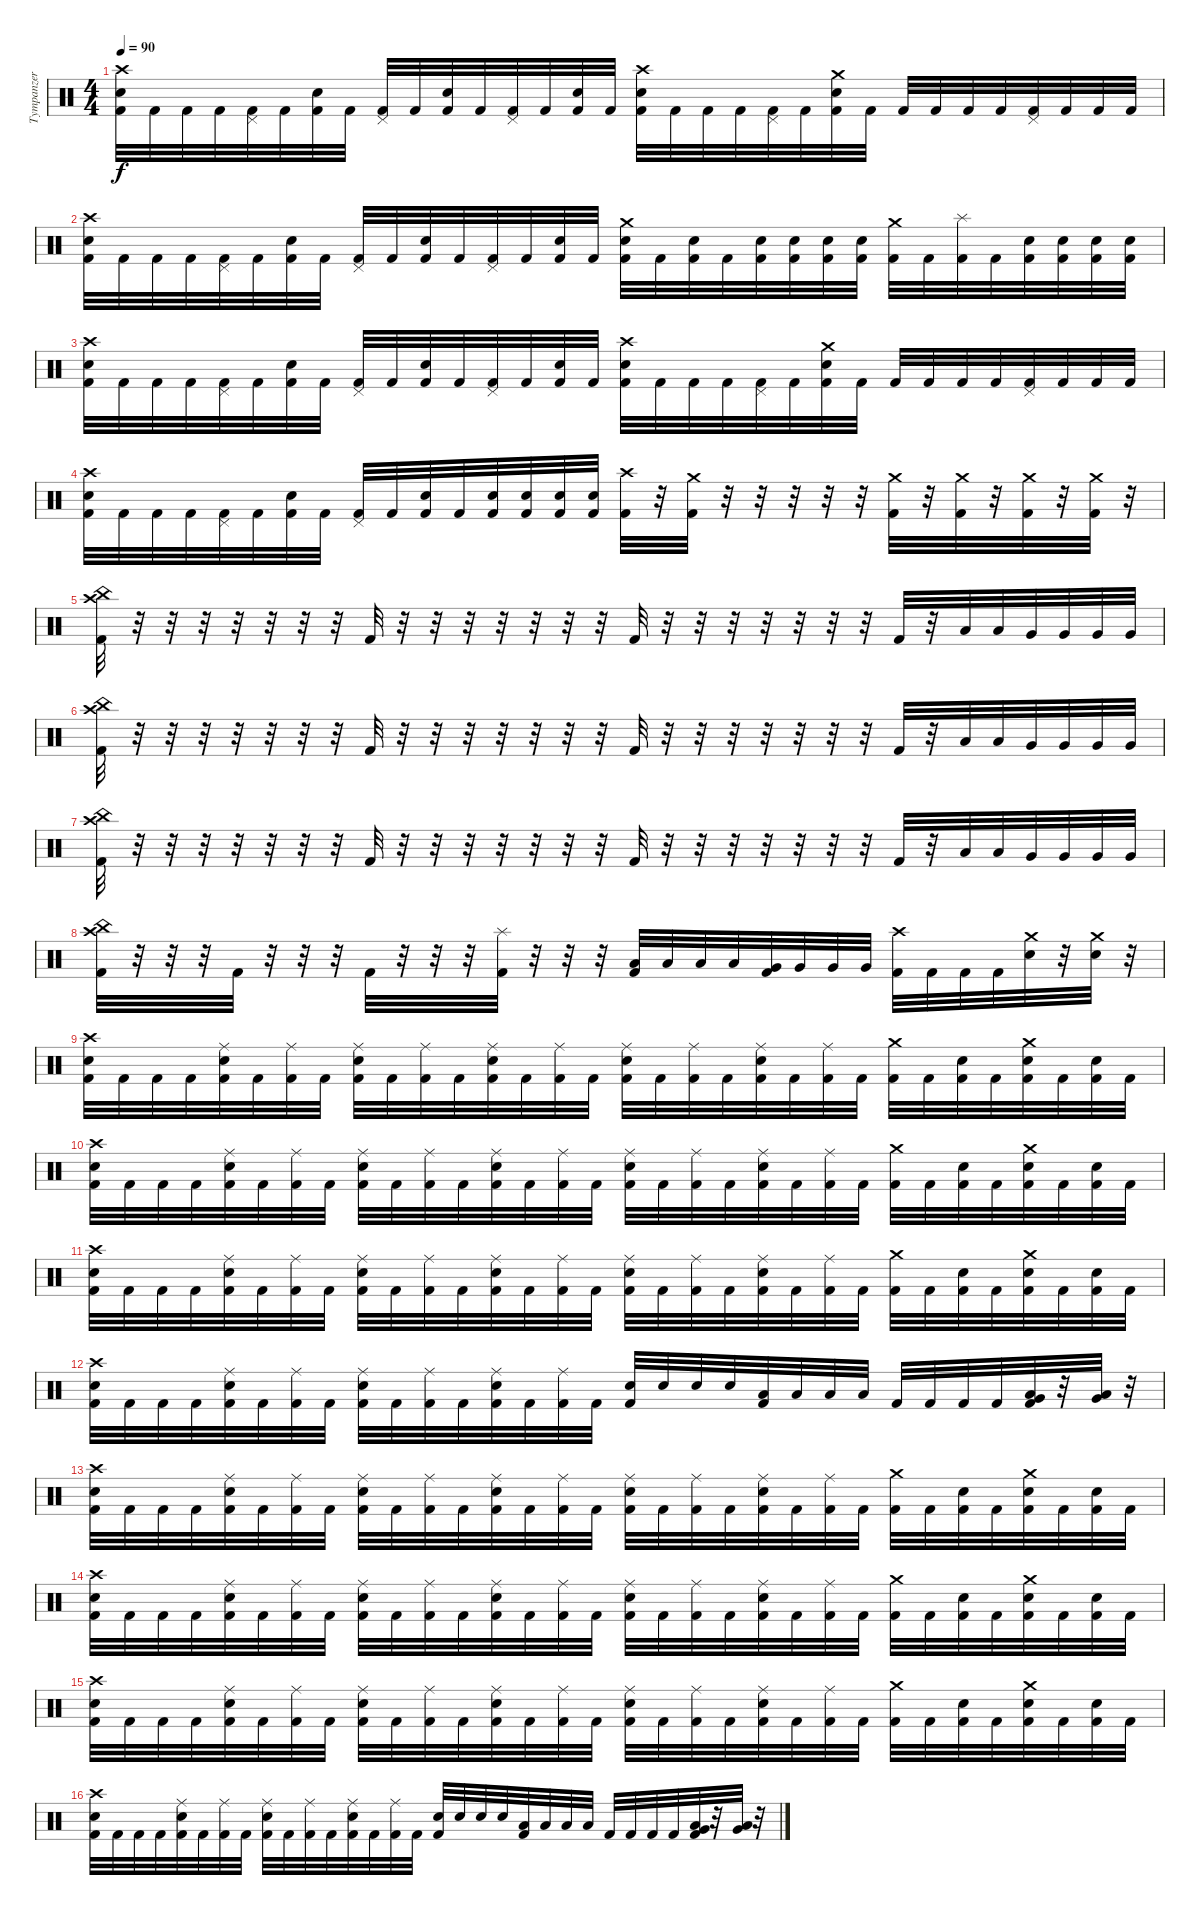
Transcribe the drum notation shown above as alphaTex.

\track ("Tympanzer" "Tympanzer") {instrument percussion}
\staff {score}
\articulation defaults
\ts (4 4)
\tempo 90
\clef neutral
\ks c
("Crash high (hit)" "Electric Snare (hit)" "Kick (hit) 2").32{dy f} "Kick (hit) 2".32 "Kick (hit) 2".32 "Kick (hit) 2".32 ("Pedal Hi-Hat (hit)" "Kick (hit) 2").32 "Kick (hit) 2".32 ("Electric Snare (hit)" "Kick (hit) 2").32 "Kick (hit) 2".32 ("Pedal Hi-Hat (hit)" "Kick (hit) 2").32 "Kick (hit) 2".32 ("Electric Snare (hit)" "Kick (hit) 2").32 "Kick (hit) 2".32 ("Pedal Hi-Hat (hit)" "Kick (hit) 2").32 "Kick (hit) 2".32 ("Electric Snare (hit)" "Kick (hit) 2").32 "Kick (hit) 2".32 ("Crash high (hit)" "Electric Snare (hit)" "Kick (hit) 2").32 "Kick (hit) 2".32 "Kick (hit) 2".32 "Kick (hit) 2".32 ("Pedal Hi-Hat (hit)" "Kick (hit) 2").32 "Kick (hit) 2".32 ("Crash medium (hit)" "Electric Snare (hit)" "Kick (hit) 2").32 "Kick (hit) 2".32 "Kick (hit) 2".32 "Kick (hit) 2".32 "Kick (hit) 2".32 "Kick (hit) 2".32 ("Pedal Hi-Hat (hit)" "Kick (hit) 2").32 "Kick (hit) 2".32 "Kick (hit) 2".32 "Kick (hit) 2".32 |
("Crash high (hit)" "Electric Snare (hit)" "Kick (hit) 2").32 "Kick (hit) 2".32 "Kick (hit) 2".32 "Kick (hit) 2".32 ("Pedal Hi-Hat (hit)" "Kick (hit) 2").32 "Kick (hit) 2".32 ("Electric Snare (hit)" "Kick (hit) 2").32 "Kick (hit) 2".32 ("Pedal Hi-Hat (hit)" "Kick (hit) 2").32 "Kick (hit) 2".32 ("Electric Snare (hit)" "Kick (hit) 2").32 "Kick (hit) 2".32 ("Pedal Hi-Hat (hit)" "Kick (hit) 2").32 "Kick (hit) 2".32 ("Electric Snare (hit)" "Kick (hit) 2").32 "Kick (hit) 2".32 ("Crash medium (hit)" "Electric Snare (hit)" "Kick (hit) 2").32 "Kick (hit) 2".32 ("Electric Snare (hit)" "Kick (hit) 2").32 "Kick (hit) 2".32 ("Electric Snare (hit)" "Kick (hit) 2").32 ("Electric Snare (hit)" "Kick (hit) 2").32 ("Electric Snare (hit)" "Kick (hit) 2").32 ("Electric Snare (hit)" "Kick (hit) 2").32 ("Crash medium (hit)" "Kick (hit) 2").32 "Kick (hit) 2".32 ("Splash (hit)" "Kick (hit) 2").32 "Kick (hit) 2".32 ("Electric Snare (hit)" "Kick (hit) 2").32 ("Electric Snare (hit)" "Kick (hit) 2").32 ("Electric Snare (hit)" "Kick (hit) 2").32 ("Electric Snare (hit)" "Kick (hit) 2").32 |
("Crash high (hit)" "Electric Snare (hit)" "Kick (hit) 2").32 "Kick (hit) 2".32 "Kick (hit) 2".32 "Kick (hit) 2".32 ("Pedal Hi-Hat (hit)" "Kick (hit) 2").32 "Kick (hit) 2".32 ("Electric Snare (hit)" "Kick (hit) 2").32 "Kick (hit) 2".32 ("Pedal Hi-Hat (hit)" "Kick (hit) 2").32 "Kick (hit) 2".32 ("Electric Snare (hit)" "Kick (hit) 2").32 "Kick (hit) 2".32 ("Pedal Hi-Hat (hit)" "Kick (hit) 2").32 "Kick (hit) 2".32 ("Electric Snare (hit)" "Kick (hit) 2").32 "Kick (hit) 2".32 ("Crash high (hit)" "Electric Snare (hit)" "Kick (hit) 2").32 "Kick (hit) 2".32 "Kick (hit) 2".32 "Kick (hit) 2".32 ("Pedal Hi-Hat (hit)" "Kick (hit) 2").32 "Kick (hit) 2".32 ("Crash medium (hit)" "Electric Snare (hit)" "Kick (hit) 2").32 "Kick (hit) 2".32 "Kick (hit) 2".32 "Kick (hit) 2".32 "Kick (hit) 2".32 "Kick (hit) 2".32 ("Pedal Hi-Hat (hit)" "Kick (hit) 2").32 "Kick (hit) 2".32 "Kick (hit) 2".32 "Kick (hit) 2".32 |
("Crash high (hit)" "Electric Snare (hit)" "Kick (hit) 2").32 "Kick (hit) 2".32 "Kick (hit) 2".32 "Kick (hit) 2".32 ("Pedal Hi-Hat (hit)" "Kick (hit) 2").32 "Kick (hit) 2".32 ("Electric Snare (hit)" "Kick (hit) 2").32 "Kick (hit) 2".32 ("Pedal Hi-Hat (hit)" "Kick (hit) 2").32 "Kick (hit) 2".32 ("Electric Snare (hit)" "Kick (hit) 2").32 "Kick (hit) 2".32 ("Electric Snare (hit)" "Kick (hit) 2").32 ("Electric Snare (hit)" "Kick (hit) 2").32 ("Electric Snare (hit)" "Kick (hit) 2").32 ("Electric Snare (hit)" "Kick (hit) 2").32 ("Crash high (hit)" "Kick (hit) 2").32 r.32 ("Crash medium (hit)" "Kick (hit) 2").32 r.32 r.32 r.32 r.32 r.32 ("Crash medium (hit)" "Kick (hit) 2").32 r.32 ("Crash medium (hit)" "Kick (hit) 2").32 r.32 ("Crash medium (hit)" "Kick (hit) 2").32 r.32 ("Crash medium (hit)" "Kick (hit) 2").32 r.32 |
("China (hit)" "Crash high (hit)" "Kick (hit) 2").32 r.32 r.32 r.32 r.32 r.32 r.32 r.32 "Kick (hit) 2".32 r.32 r.32 r.32 r.32 r.32 r.32 r.32 "Kick (hit) 2".32 r.32 r.32 r.32 r.32 r.32 r.32 r.32 "Kick (hit) 2".32 r.32 "Low Tom (hit)".32 "Low Tom (hit)".32 "Very Low Tom (hit)".32 "Very Low Tom (hit)".32 "Very Low Tom (hit)".32 "Very Low Tom (hit)".32 |
("China (hit)" "Crash high (hit)" "Kick (hit) 2").32 r.32 r.32 r.32 r.32 r.32 r.32 r.32 "Kick (hit) 2".32 r.32 r.32 r.32 r.32 r.32 r.32 r.32 "Kick (hit) 2".32 r.32 r.32 r.32 r.32 r.32 r.32 r.32 "Kick (hit) 2".32 r.32 "Low Tom (hit)".32 "Low Tom (hit)".32 "Very Low Tom (hit)".32 "Very Low Tom (hit)".32 "Very Low Tom (hit)".32 "Very Low Tom (hit)".32 |
("China (hit)" "Crash high (hit)" "Kick (hit) 2").32 r.32 r.32 r.32 r.32 r.32 r.32 r.32 "Kick (hit) 2".32 r.32 r.32 r.32 r.32 r.32 r.32 r.32 "Kick (hit) 2".32 r.32 r.32 r.32 r.32 r.32 r.32 r.32 "Kick (hit) 2".32 r.32 "Low Tom (hit)".32 "Low Tom (hit)".32 "Very Low Tom (hit)".32 "Very Low Tom (hit)".32 "Very Low Tom (hit)".32 "Very Low Tom (hit)".32 |
("China (hit)" "Crash high (hit)" "Kick (hit) 2").32 r.32 r.32 r.32 "Kick (hit) 2".32 r.32 r.32 r.32 "Kick (hit) 2".32 r.32 r.32 r.32 ("Splash (hit)" "Kick (hit) 2").32 r.32 r.32 r.32 ("Low Tom (hit)" "Kick (hit) 2").32 "Low Tom (hit)".32 "Low Tom (hit)".32 "Low Tom (hit)".32 ("Very Low Tom (hit)" "Kick (hit) 2").32 "Very Low Tom (hit)".32 "Very Low Tom (hit)".32 "Very Low Tom (hit)".32 ("Crash high (hit)" "Kick (hit) 2").32 "Kick (hit) 2".32 "Kick (hit) 2".32 "Kick (hit) 2".32 ("Crash medium (hit)" "Electric Snare (hit)").32 r.32 ("Crash medium (hit)" "Electric Snare (hit)").32 r.32 |
("Crash high (hit)" "Electric Snare (hit)" "Kick (hit) 2").32 "Kick (hit) 2".32 "Kick (hit) 2".32 "Kick (hit) 2".32 ("Ride (middle)" "Electric Snare (hit)" "Kick (hit) 2").32 "Kick (hit) 2".32 ("Ride (middle)" "Kick (hit) 2").32 "Kick (hit) 2".32 ("Ride (middle)" "Electric Snare (hit)" "Kick (hit) 2").32 "Kick (hit) 2".32 ("Ride (middle)" "Kick (hit) 2").32 "Kick (hit) 2".32 ("Ride (middle)" "Electric Snare (hit)" "Kick (hit) 2").32 "Kick (hit) 2".32 ("Ride (middle)" "Kick (hit) 2").32 "Kick (hit) 2".32 ("Ride (middle)" "Electric Snare (hit)" "Kick (hit) 2").32 "Kick (hit) 2".32 ("Ride (middle)" "Kick (hit) 2").32 "Kick (hit) 2".32 ("Ride (middle)" "Electric Snare (hit)" "Kick (hit) 2").32 "Kick (hit) 2".32 ("Ride (middle)" "Kick (hit) 2").32 "Kick (hit) 2".32 ("Crash medium (hit)" "Kick (hit) 2").32 "Kick (hit) 2".32 ("Electric Snare (hit)" "Kick (hit) 2").32 "Kick (hit) 2".32 ("Crash medium (hit)" "Electric Snare (hit)" "Kick (hit) 2").32 "Kick (hit) 2".32 ("Electric Snare (hit)" "Kick (hit) 2").32 "Kick (hit) 2".32 |
("Crash high (hit)" "Electric Snare (hit)" "Kick (hit) 2").32 "Kick (hit) 2".32 "Kick (hit) 2".32 "Kick (hit) 2".32 ("Ride (middle)" "Electric Snare (hit)" "Kick (hit) 2").32 "Kick (hit) 2".32 ("Ride (middle)" "Kick (hit) 2").32 "Kick (hit) 2".32 ("Ride (middle)" "Electric Snare (hit)" "Kick (hit) 2").32 "Kick (hit) 2".32 ("Ride (middle)" "Kick (hit) 2").32 "Kick (hit) 2".32 ("Ride (middle)" "Electric Snare (hit)" "Kick (hit) 2").32 "Kick (hit) 2".32 ("Ride (middle)" "Kick (hit) 2").32 "Kick (hit) 2".32 ("Ride (middle)" "Electric Snare (hit)" "Kick (hit) 2").32 "Kick (hit) 2".32 ("Ride (middle)" "Kick (hit) 2").32 "Kick (hit) 2".32 ("Ride (middle)" "Electric Snare (hit)" "Kick (hit) 2").32 "Kick (hit) 2".32 ("Ride (middle)" "Kick (hit) 2").32 "Kick (hit) 2".32 ("Crash medium (hit)" "Kick (hit) 2").32 "Kick (hit) 2".32 ("Electric Snare (hit)" "Kick (hit) 2").32 "Kick (hit) 2".32 ("Crash medium (hit)" "Electric Snare (hit)" "Kick (hit) 2").32 "Kick (hit) 2".32 ("Electric Snare (hit)" "Kick (hit) 2").32 "Kick (hit) 2".32 |
("Crash high (hit)" "Electric Snare (hit)" "Kick (hit) 2").32 "Kick (hit) 2".32 "Kick (hit) 2".32 "Kick (hit) 2".32 ("Ride (middle)" "Electric Snare (hit)" "Kick (hit) 2").32 "Kick (hit) 2".32 ("Ride (middle)" "Kick (hit) 2").32 "Kick (hit) 2".32 ("Ride (middle)" "Electric Snare (hit)" "Kick (hit) 2").32 "Kick (hit) 2".32 ("Ride (middle)" "Kick (hit) 2").32 "Kick (hit) 2".32 ("Ride (middle)" "Electric Snare (hit)" "Kick (hit) 2").32 "Kick (hit) 2".32 ("Ride (middle)" "Kick (hit) 2").32 "Kick (hit) 2".32 ("Ride (middle)" "Electric Snare (hit)" "Kick (hit) 2").32 "Kick (hit) 2".32 ("Ride (middle)" "Kick (hit) 2").32 "Kick (hit) 2".32 ("Ride (middle)" "Electric Snare (hit)" "Kick (hit) 2").32 "Kick (hit) 2".32 ("Ride (middle)" "Kick (hit) 2").32 "Kick (hit) 2".32 ("Crash medium (hit)" "Kick (hit) 2").32 "Kick (hit) 2".32 ("Electric Snare (hit)" "Kick (hit) 2").32 "Kick (hit) 2".32 ("Crash medium (hit)" "Electric Snare (hit)" "Kick (hit) 2").32 "Kick (hit) 2".32 ("Electric Snare (hit)" "Kick (hit) 2").32 "Kick (hit) 2".32 |
("Crash high (hit)" "Electric Snare (hit)" "Kick (hit) 2").32 "Kick (hit) 2".32 "Kick (hit) 2".32 "Kick (hit) 2".32 ("Ride (middle)" "Electric Snare (hit)" "Kick (hit) 2").32 "Kick (hit) 2".32 ("Ride (middle)" "Kick (hit) 2").32 "Kick (hit) 2".32 ("Ride (middle)" "Electric Snare (hit)" "Kick (hit) 2").32 "Kick (hit) 2".32 ("Ride (middle)" "Kick (hit) 2").32 "Kick (hit) 2".32 ("Ride (middle)" "Electric Snare (hit)" "Kick (hit) 2").32 "Kick (hit) 2".32 ("Ride (middle)" "Kick (hit) 2").32 "Kick (hit) 2".32 ("Electric Snare (hit)" "Kick (hit) 2").32 "Electric Snare (hit)".32 "Electric Snare (hit)".32 "Electric Snare (hit)".32 ("Low Tom (hit)" "Kick (hit) 2").32 "Low Tom (hit)".32 "Low Tom (hit)".32 "Low Tom (hit)".32 "Kick (hit) 2".32 "Kick (hit) 2".32 "Kick (hit) 2".32 "Kick (hit) 2".32 ("Low Floor Tom (hit)" "Very Low Tom (hit)" "Kick (hit) 2").32 r.32 ("Low Floor Tom (hit)" "Very Low Tom (hit)").32 r.32 |
("Crash high (hit)" "Electric Snare (hit)" "Kick (hit) 2").32 "Kick (hit) 2".32 "Kick (hit) 2".32 "Kick (hit) 2".32 ("Ride (middle)" "Electric Snare (hit)" "Kick (hit) 2").32 "Kick (hit) 2".32 ("Ride (middle)" "Kick (hit) 2").32 "Kick (hit) 2".32 ("Ride (middle)" "Electric Snare (hit)" "Kick (hit) 2").32 "Kick (hit) 2".32 ("Ride (middle)" "Kick (hit) 2").32 "Kick (hit) 2".32 ("Ride (middle)" "Electric Snare (hit)" "Kick (hit) 2").32 "Kick (hit) 2".32 ("Ride (middle)" "Kick (hit) 2").32 "Kick (hit) 2".32 ("Ride (middle)" "Electric Snare (hit)" "Kick (hit) 2").32 "Kick (hit) 2".32 ("Ride (middle)" "Kick (hit) 2").32 "Kick (hit) 2".32 ("Ride (middle)" "Electric Snare (hit)" "Kick (hit) 2").32 "Kick (hit) 2".32 ("Ride (middle)" "Kick (hit) 2").32 "Kick (hit) 2".32 ("Crash medium (hit)" "Kick (hit) 2").32 "Kick (hit) 2".32 ("Electric Snare (hit)" "Kick (hit) 2").32 "Kick (hit) 2".32 ("Crash medium (hit)" "Electric Snare (hit)" "Kick (hit) 2").32 "Kick (hit) 2".32 ("Electric Snare (hit)" "Kick (hit) 2").32 "Kick (hit) 2".32 |
("Crash high (hit)" "Electric Snare (hit)" "Kick (hit) 2").32 "Kick (hit) 2".32 "Kick (hit) 2".32 "Kick (hit) 2".32 ("Ride (middle)" "Electric Snare (hit)" "Kick (hit) 2").32 "Kick (hit) 2".32 ("Ride (middle)" "Kick (hit) 2").32 "Kick (hit) 2".32 ("Ride (middle)" "Electric Snare (hit)" "Kick (hit) 2").32 "Kick (hit) 2".32 ("Ride (middle)" "Kick (hit) 2").32 "Kick (hit) 2".32 ("Ride (middle)" "Electric Snare (hit)" "Kick (hit) 2").32 "Kick (hit) 2".32 ("Ride (middle)" "Kick (hit) 2").32 "Kick (hit) 2".32 ("Ride (middle)" "Electric Snare (hit)" "Kick (hit) 2").32 "Kick (hit) 2".32 ("Ride (middle)" "Kick (hit) 2").32 "Kick (hit) 2".32 ("Ride (middle)" "Electric Snare (hit)" "Kick (hit) 2").32 "Kick (hit) 2".32 ("Ride (middle)" "Kick (hit) 2").32 "Kick (hit) 2".32 ("Crash medium (hit)" "Kick (hit) 2").32 "Kick (hit) 2".32 ("Electric Snare (hit)" "Kick (hit) 2").32 "Kick (hit) 2".32 ("Crash medium (hit)" "Electric Snare (hit)" "Kick (hit) 2").32 "Kick (hit) 2".32 ("Electric Snare (hit)" "Kick (hit) 2").32 "Kick (hit) 2".32 |
("Crash high (hit)" "Electric Snare (hit)" "Kick (hit) 2").32 "Kick (hit) 2".32 "Kick (hit) 2".32 "Kick (hit) 2".32 ("Ride (middle)" "Electric Snare (hit)" "Kick (hit) 2").32 "Kick (hit) 2".32 ("Ride (middle)" "Kick (hit) 2").32 "Kick (hit) 2".32 ("Ride (middle)" "Electric Snare (hit)" "Kick (hit) 2").32 "Kick (hit) 2".32 ("Ride (middle)" "Kick (hit) 2").32 "Kick (hit) 2".32 ("Ride (middle)" "Electric Snare (hit)" "Kick (hit) 2").32 "Kick (hit) 2".32 ("Ride (middle)" "Kick (hit) 2").32 "Kick (hit) 2".32 ("Ride (middle)" "Electric Snare (hit)" "Kick (hit) 2").32 "Kick (hit) 2".32 ("Ride (middle)" "Kick (hit) 2").32 "Kick (hit) 2".32 ("Ride (middle)" "Electric Snare (hit)" "Kick (hit) 2").32 "Kick (hit) 2".32 ("Ride (middle)" "Kick (hit) 2").32 "Kick (hit) 2".32 ("Crash medium (hit)" "Kick (hit) 2").32 "Kick (hit) 2".32 ("Electric Snare (hit)" "Kick (hit) 2").32 "Kick (hit) 2".32 ("Crash medium (hit)" "Electric Snare (hit)" "Kick (hit) 2").32 "Kick (hit) 2".32 ("Electric Snare (hit)" "Kick (hit) 2").32 "Kick (hit) 2".32 |
("Crash high (hit)" "Electric Snare (hit)" "Kick (hit) 2").32 "Kick (hit) 2".32 "Kick (hit) 2".32 "Kick (hit) 2".32 ("Ride (middle)" "Electric Snare (hit)" "Kick (hit) 2").32 "Kick (hit) 2".32 ("Ride (middle)" "Kick (hit) 2").32 "Kick (hit) 2".32 ("Ride (middle)" "Electric Snare (hit)" "Kick (hit) 2").32 "Kick (hit) 2".32 ("Ride (middle)" "Kick (hit) 2").32 "Kick (hit) 2".32 ("Ride (middle)" "Electric Snare (hit)" "Kick (hit) 2").32 "Kick (hit) 2".32 ("Ride (middle)" "Kick (hit) 2").32 "Kick (hit) 2".32 ("Electric Snare (hit)" "Kick (hit) 2").32 "Electric Snare (hit)".32 "Electric Snare (hit)".32 "Electric Snare (hit)".32 ("Low Tom (hit)" "Kick (hit) 2").32 "Low Tom (hit)".32 "Low Tom (hit)".32 "Low Tom (hit)".32 "Kick (hit) 2".32 "Kick (hit) 2".32 "Kick (hit) 2".32 "Kick (hit) 2".32 ("Low Floor Tom (hit)" "Very Low Tom (hit)" "Kick (hit) 2").32 r.32 ("Low Floor Tom (hit)" "Very Low Tom (hit)").32 r.32
